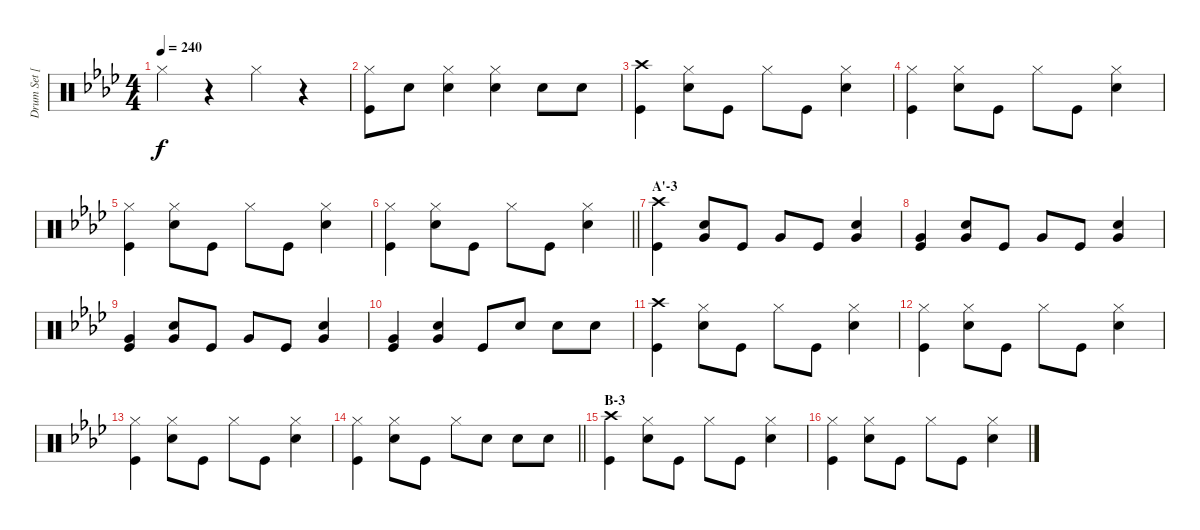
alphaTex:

\track ("Drum Set [Ritsu]" "Drum Set [") {instrument percussion}
\staff {score}
\articulation defaults
\ts (4 4)
\tempo 240
\clef neutral
\ks ab "Hi-Hat (closed)".4{dy f}
r.4 "Hi-Hat (closed)".4 r.4 |
("Hi-Hat (closed)" "Kick (hit)").8 "Snare (hit) 2".8 ("Hi-Hat (closed)" "Snare (hit) 2").4 ("Hi-Hat (closed)" "Snare (hit) 2").4 "Snare (hit) 2".8 "Snare (hit) 2".8 |
("Crash high (hit)" "Kick (hit)").4 ("Hi-Hat (closed)" "Snare (hit) 2").8 "Kick (hit)".8 "Hi-Hat (closed)".8 "Kick (hit)".8 ("Hi-Hat (closed)" "Snare (hit) 2").4 |
("Hi-Hat (closed)" "Kick (hit)").4 ("Hi-Hat (closed)" "Snare (hit) 2").8 "Kick (hit)".8 "Hi-Hat (closed)".8 "Kick (hit)".8 ("Hi-Hat (closed)" "Snare (hit) 2").4 |
("Hi-Hat (closed)" "Kick (hit)").4 ("Hi-Hat (closed)" "Snare (hit) 2").8 "Kick (hit)".8 "Hi-Hat (closed)".8 "Kick (hit)".8 ("Hi-Hat (closed)" "Snare (hit) 2").4 |
\barLineRight lightlight
("Hi-Hat (closed)" "Kick (hit)").4 ("Hi-Hat (closed)" "Snare (hit) 2").8 "Kick (hit)".8 "Hi-Hat (closed)".8 "Kick (hit)".8 ("Hi-Hat (closed)" "Snare (hit) 2").4 |
\section ("" "A'-3")
("Crash high (hit)" "Kick (hit)").4 ("Very Low Tom (hit)" "Snare (hit) 2").8 "Kick (hit)".8 "Very Low Tom (hit)".8 "Kick (hit)".8 ("Very Low Tom (hit)" "Snare (hit) 2").4 |
("Very Low Tom (hit)" "Kick (hit)").4 ("Very Low Tom (hit)" "Snare (hit) 2").8 "Kick (hit)".8 "Very Low Tom (hit)".8 "Kick (hit)".8 ("Very Low Tom (hit)" "Snare (hit) 2").4 |
("Very Low Tom (hit)" "Kick (hit)").4 ("Very Low Tom (hit)" "Snare (hit) 2").8 "Kick (hit)".8 "Very Low Tom (hit)".8 "Kick (hit)".8 ("Very Low Tom (hit)" "Snare (hit) 2").4 |
("Very Low Tom (hit)" "Kick (hit)").4 ("Very Low Tom (hit)" "Snare (hit) 2").4 "Kick (hit)".8 "Snare (hit) 2".8 "Snare (hit) 2".8 "Snare (hit) 2".8 |
("Crash high (hit)" "Kick (hit)").4 ("Hi-Hat (closed)" "Snare (hit) 2").8 "Kick (hit)".8 "Hi-Hat (closed)".8 "Kick (hit)".8 ("Hi-Hat (closed)" "Snare (hit) 2").4 |
("Hi-Hat (closed)" "Kick (hit)").4 ("Hi-Hat (closed)" "Snare (hit) 2").8 "Kick (hit)".8 "Hi-Hat (closed)".8 "Kick (hit)".8 ("Hi-Hat (closed)" "Snare (hit) 2").4 |
("Hi-Hat (closed)" "Kick (hit)").4 ("Hi-Hat (closed)" "Snare (hit) 2").8 "Kick (hit)".8 "Hi-Hat (closed)".8 "Kick (hit)".8 ("Hi-Hat (closed)" "Snare (hit) 2").4 |
\barLineRight lightlight
("Hi-Hat (closed)" "Kick (hit)").4 ("Hi-Hat (closed)" "Snare (hit) 2").8 "Kick (hit)".8 "Hi-Hat (closed)".8 "Snare (hit) 2".8 "Snare (hit) 2".8 "Snare (hit) 2".8 |
\section ("" "B-3")
("Crash high (hit)" "Kick (hit)").4 ("Hi-Hat (closed)" "Snare (hit) 2").8 "Kick (hit)".8 "Hi-Hat (closed)".8 "Kick (hit)".8 ("Hi-Hat (closed)" "Snare (hit) 2").4 |
("Hi-Hat (closed)" "Kick (hit)").4 ("Hi-Hat (closed)" "Snare (hit) 2").8 "Kick (hit)".8 "Hi-Hat (closed)".8 "Kick (hit)".8 ("Hi-Hat (closed)" "Snare (hit) 2").4
